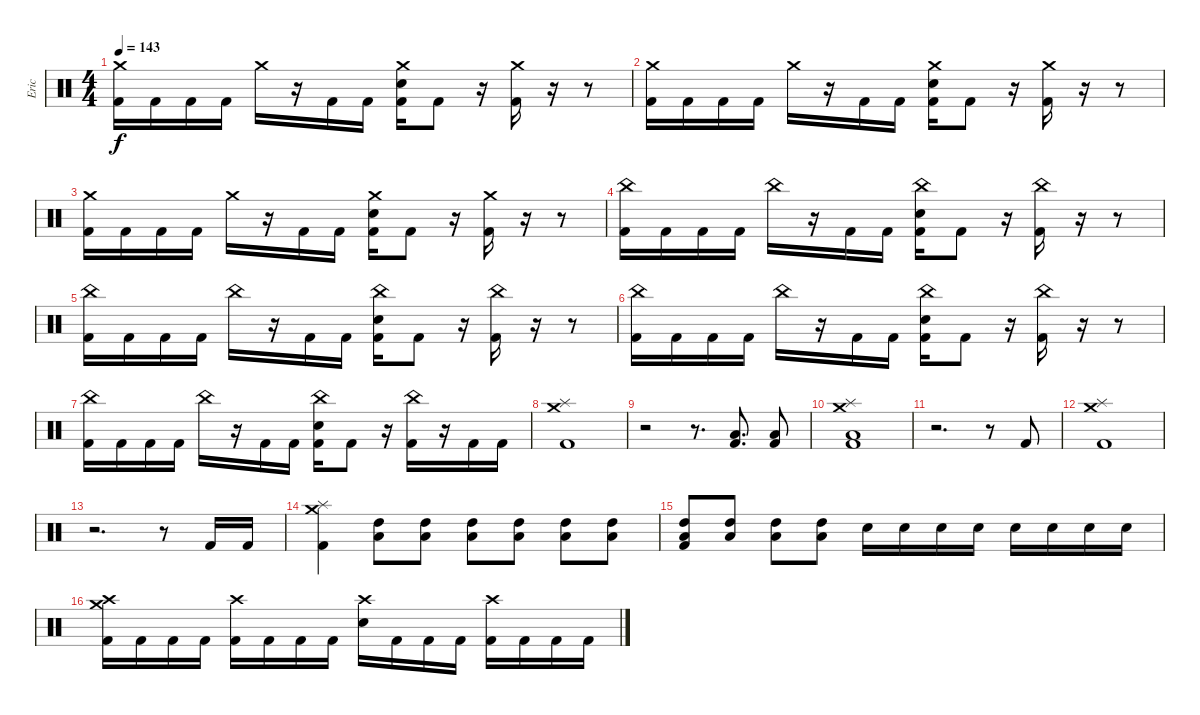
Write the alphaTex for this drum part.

\track ("Eric" "Eric") {instrument percussion}
\staff {score}
\articulation defaults
\ts (4 4)
\tempo 143
\clef neutral
\ks c
("Crash medium (hit)" "Kick (hit) 2").16{dy f} "Kick (hit) 2".16 "Kick (hit) 2".16 "Kick (hit) 2".16 "Crash medium (hit)".16 r.16 "Kick (hit) 2".16 "Kick (hit) 2".16 ("Crash medium (hit)" "Electric Snare (hit)" "Kick (hit) 2").16 "Kick (hit) 2".8 r.16 ("Crash medium (hit)" "Kick (hit) 2").16 r.16 r.8 |
("Crash medium (hit)" "Kick (hit) 2").16 "Kick (hit) 2".16 "Kick (hit) 2".16 "Kick (hit) 2".16 "Crash medium (hit)".16 r.16 "Kick (hit) 2".16 "Kick (hit) 2".16 ("Crash medium (hit)" "Electric Snare (hit)" "Kick (hit) 2").16 "Kick (hit) 2".8 r.16 ("Crash medium (hit)" "Kick (hit) 2").16 r.16 r.8 |
("Crash medium (hit)" "Kick (hit) 2").16 "Kick (hit) 2".16 "Kick (hit) 2".16 "Kick (hit) 2".16 "Crash medium (hit)".16 r.16 "Kick (hit) 2".16 "Kick (hit) 2".16 ("Crash medium (hit)" "Electric Snare (hit)" "Kick (hit) 2").16 "Kick (hit) 2".8 r.16 ("Crash medium (hit)" "Kick (hit) 2").16 r.16 r.8 |
("China (hit)" "Kick (hit) 2").16 "Kick (hit) 2".16 "Kick (hit) 2".16 "Kick (hit) 2".16 "China (hit)".16 r.16 "Kick (hit) 2".16 "Kick (hit) 2".16 ("China (hit)" "Electric Snare (hit)" "Kick (hit) 2").16 "Kick (hit) 2".8 r.16 ("China (hit)" "Kick (hit) 2").16 r.16 r.8 |
("China (hit)" "Kick (hit) 2").16 "Kick (hit) 2".16 "Kick (hit) 2".16 "Kick (hit) 2".16 "China (hit)".16 r.16 "Kick (hit) 2".16 "Kick (hit) 2".16 ("China (hit)" "Electric Snare (hit)" "Kick (hit) 2").16 "Kick (hit) 2".8 r.16 ("China (hit)" "Kick (hit) 2").16 r.16 r.8 |
("China (hit)" "Kick (hit) 2").16 "Kick (hit) 2".16 "Kick (hit) 2".16 "Kick (hit) 2".16 "China (hit)".16 r.16 "Kick (hit) 2".16 "Kick (hit) 2".16 ("China (hit)" "Electric Snare (hit)" "Kick (hit) 2").16 "Kick (hit) 2".8 r.16 ("China (hit)" "Kick (hit) 2").16 r.16 r.8 |
("China (hit)" "Kick (hit) 2").16 "Kick (hit) 2".16 "Kick (hit) 2".16 "Kick (hit) 2".16 "China (hit)".16 r.16 "Kick (hit) 2".16 "Kick (hit) 2".16 ("China (hit)" "Electric Snare (hit)" "Kick (hit) 2").16 "Kick (hit) 2".8 r.16 ("China (hit)" "Kick (hit) 2").16 r.16 "Kick (hit) 2".16 "Kick (hit) 2".16 |
("Crash medium (hit)" "Splash (hit)" "Kick (hit) 2").1 |
r.2 r.8{d} ("Low Tom (hit)" "Kick (hit) 2").8{d} ("Low Tom (hit)" "Kick (hit) 2").8 |
("Crash medium (hit)" "Splash (hit)" "Low Tom (hit)" "Kick (hit) 2").1 |
r.2{d} r.8 "Kick (hit) 2".8 |
("Crash medium (hit)" "Splash (hit)" "Kick (hit) 2").1 |
r.2{d} r.8 "Kick (hit) 2".16 "Kick (hit) 2".16 |
("Splash (hit)" "Crash medium (hit)" "Kick (hit) 2").4{volume 16} ("High Tom (hit)" "Low Tom (hit)").8{volume 5} ("High Tom (hit)" "Low Tom (hit)").8{volume 6} ("High Tom (hit)" "Low Tom (hit)").8{volume 7} ("High Tom (hit)" "Low Tom (hit)").8{volume 8} ("High Tom (hit)" "Low Tom (hit)").8{volume 9} ("High Tom (hit)" "Low Tom (hit)").8{volume 10} |
("High Tom (hit)" "Low Tom (hit)" "Kick (hit) 2").8{volume 12} ("High Tom (hit)" "Low Tom (hit)").8{volume 13} ("High Tom (hit)" "Low Tom (hit)").8{volume 14} ("High Tom (hit)" "Low Tom (hit)").8{volume 15} "Electric Snare (hit)".16 "Electric Snare (hit)".16 "Electric Snare (hit)".16 "Electric Snare (hit)".16 "Electric Snare (hit)".16 "Electric Snare (hit)".16 "Electric Snare (hit)".16 "Electric Snare (hit)".16 |
("Crash high (hit)" "Crash medium (hit)" "Kick (hit) 2").16 "Kick (hit) 2".16 "Kick (hit) 2".16 "Kick (hit) 2".16 ("Crash high (hit)" "Kick (hit) 2").16 "Kick (hit) 2".16 "Kick (hit) 2".16 "Kick (hit) 2".16 ("Crash high (hit)" "Electric Snare (hit)").16 "Kick (hit) 2".16 "Kick (hit) 2".16 "Kick (hit) 2".16 ("Crash high (hit)" "Kick (hit) 2").16 "Kick (hit) 2".16 "Kick (hit) 2".16 "Kick (hit) 2".16
